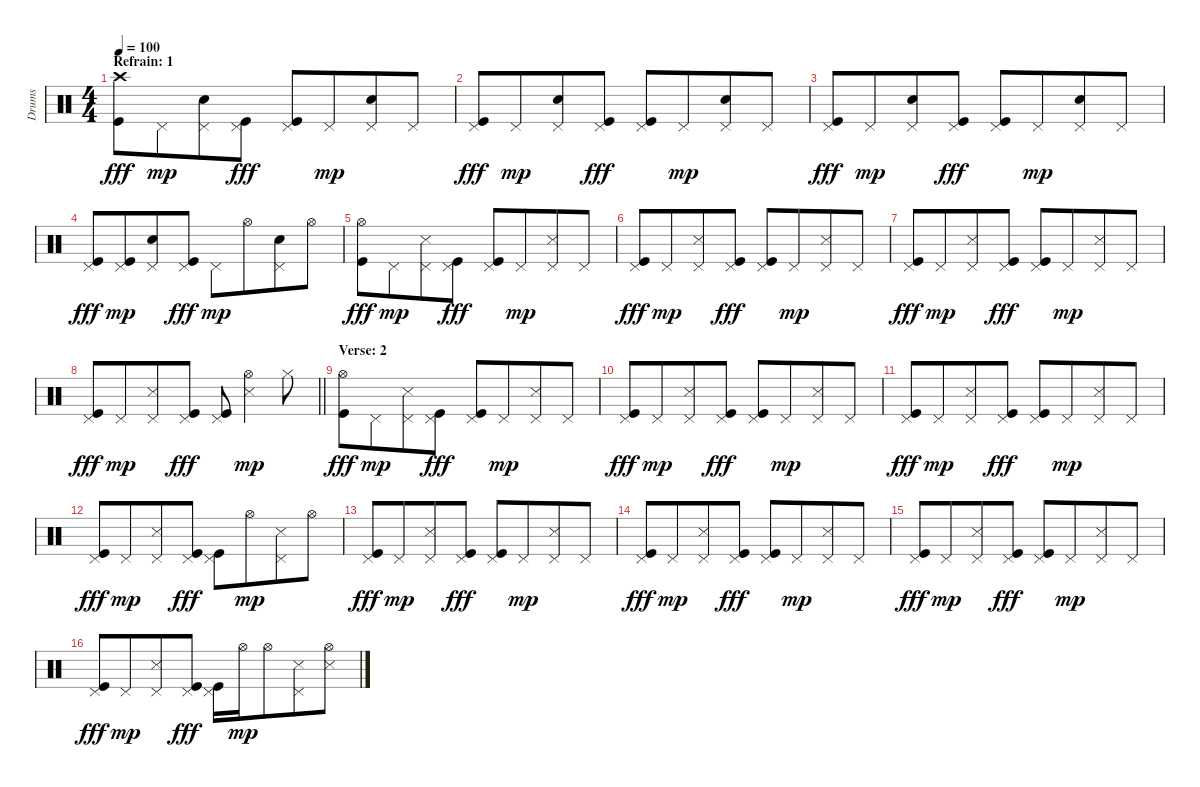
\track ("Drums" "Drums") {instrument percussion}
\staff {score}
\articulation defaults
\ts (4 4)
\section ("" "Refrain: 1")
\tempo 100
\clef neutral
\ks c
("Crash high (hit)" "Kick (hit)").8{dy fff} "Pedal Hi-Hat (hit)".8{dy mp beam merge} ("Pedal Hi-Hat (hit)" "Snare (hit) 2").8 ("Pedal Hi-Hat (hit)" "Kick (hit)").8{dy fff} ("Pedal Hi-Hat (hit)" "Kick (hit)").8 "Pedal Hi-Hat (hit)".8{dy mp beam merge} ("Pedal Hi-Hat (hit)" "Snare (hit) 2").8 "Pedal Hi-Hat (hit)".8 |
("Pedal Hi-Hat (hit)" "Kick (hit)").8{dy fff} "Pedal Hi-Hat (hit)".8{dy mp beam merge} ("Pedal Hi-Hat (hit)" "Snare (hit) 2").8 ("Pedal Hi-Hat (hit)" "Kick (hit)").8{dy fff} ("Pedal Hi-Hat (hit)" "Kick (hit)").8 "Pedal Hi-Hat (hit)".8{dy mp beam merge} ("Pedal Hi-Hat (hit)" "Snare (hit) 2").8 "Pedal Hi-Hat (hit)".8 |
("Pedal Hi-Hat (hit)" "Kick (hit)").8{dy fff} "Pedal Hi-Hat (hit)".8{dy mp beam merge} ("Pedal Hi-Hat (hit)" "Snare (hit) 2").8 ("Pedal Hi-Hat (hit)" "Kick (hit)").8{dy fff} ("Pedal Hi-Hat (hit)" "Kick (hit)").8 "Pedal Hi-Hat (hit)".8{dy mp beam merge} ("Pedal Hi-Hat (hit)" "Snare (hit) 2").8 "Pedal Hi-Hat (hit)".8 |
("Pedal Hi-Hat (hit)" "Kick (hit)").8{dy fff} ("Pedal Hi-Hat (hit)" "Kick (hit)").8{dy mp beam merge} ("Pedal Hi-Hat (hit)" "Snare (hit) 2").8 ("Pedal Hi-Hat (hit)" "Kick (hit)").8{dy fff} "Pedal Hi-Hat (hit)".8{dy mp} "Hi-Hat (open)".8{beam merge} ("Pedal Hi-Hat (hit)" "Snare (hit) 2").8 "Hi-Hat (open)".8 |
("Hi-Hat (open)" "Kick (hit)").8{dy fff} "Pedal Hi-Hat (hit)".8{dy mp beam merge} ("Pedal Hi-Hat (hit)" "Snare (side stick) 3").8 ("Pedal Hi-Hat (hit)" "Kick (hit)").8{dy fff} ("Pedal Hi-Hat (hit)" "Kick (hit)").8 "Pedal Hi-Hat (hit)".8{dy mp beam merge} ("Pedal Hi-Hat (hit)" "Snare (side stick) 3").8 "Pedal Hi-Hat (hit)".8 |
("Pedal Hi-Hat (hit)" "Kick (hit)").8{dy fff} "Pedal Hi-Hat (hit)".8{dy mp beam merge} ("Pedal Hi-Hat (hit)" "Snare (side stick) 3").8 ("Pedal Hi-Hat (hit)" "Kick (hit)").8{dy fff} ("Pedal Hi-Hat (hit)" "Kick (hit)").8 "Pedal Hi-Hat (hit)".8{dy mp beam merge} ("Pedal Hi-Hat (hit)" "Snare (side stick) 3").8 "Pedal Hi-Hat (hit)".8 |
("Pedal Hi-Hat (hit)" "Kick (hit)").8{dy fff} "Pedal Hi-Hat (hit)".8{dy mp beam merge} ("Pedal Hi-Hat (hit)" "Snare (side stick) 3").8 ("Pedal Hi-Hat (hit)" "Kick (hit)").8{dy fff} ("Pedal Hi-Hat (hit)" "Kick (hit)").8 "Pedal Hi-Hat (hit)".8{dy mp beam merge} ("Pedal Hi-Hat (hit)" "Snare (side stick) 3").8 "Pedal Hi-Hat (hit)".8 |
\barLineRight lightlight
("Pedal Hi-Hat (hit)" "Kick (hit)").8{dy fff} "Pedal Hi-Hat (hit)".8{dy mp beam merge} ("Pedal Hi-Hat (hit)" "Snare (side stick) 3").8 ("Pedal Hi-Hat (hit)" "Kick (hit)").8{dy fff} ("Pedal Hi-Hat (hit)" "Kick (hit)").8 ("Hi-Hat (open)" "Snare (side stick) 3").4{dy mp} "Hi-Hat (closed)".8 |
\section ("" "Verse: 2")
("Hi-Hat (open)" "Kick (hit)").8{dy fff} "Pedal Hi-Hat (hit)".8{dy mp beam merge} ("Pedal Hi-Hat (hit)" "Snare (side stick) 3").8 ("Pedal Hi-Hat (hit)" "Kick (hit)").8{dy fff} ("Pedal Hi-Hat (hit)" "Kick (hit)").8 "Pedal Hi-Hat (hit)".8{dy mp beam merge} ("Pedal Hi-Hat (hit)" "Snare (side stick) 3").8 "Pedal Hi-Hat (hit)".8 |
("Pedal Hi-Hat (hit)" "Kick (hit)").8{dy fff} "Pedal Hi-Hat (hit)".8{dy mp beam merge} ("Pedal Hi-Hat (hit)" "Snare (side stick) 3").8 ("Pedal Hi-Hat (hit)" "Kick (hit)").8{dy fff} ("Pedal Hi-Hat (hit)" "Kick (hit)").8 "Pedal Hi-Hat (hit)".8{dy mp beam merge} ("Pedal Hi-Hat (hit)" "Snare (side stick) 3").8 "Pedal Hi-Hat (hit)".8 |
("Pedal Hi-Hat (hit)" "Kick (hit)").8{dy fff} "Pedal Hi-Hat (hit)".8{dy mp beam merge} ("Pedal Hi-Hat (hit)" "Snare (side stick) 3").8 ("Pedal Hi-Hat (hit)" "Kick (hit)").8{dy fff} ("Pedal Hi-Hat (hit)" "Kick (hit)").8 "Pedal Hi-Hat (hit)".8{dy mp beam merge} ("Pedal Hi-Hat (hit)" "Snare (side stick) 3").8 "Pedal Hi-Hat (hit)".8 |
("Pedal Hi-Hat (hit)" "Kick (hit)").8{dy fff} "Pedal Hi-Hat (hit)".8{dy mp beam merge} ("Pedal Hi-Hat (hit)" "Snare (side stick) 3").8 ("Pedal Hi-Hat (hit)" "Kick (hit)").8{dy fff} ("Pedal Hi-Hat (hit)" "Kick (hit)").8 "Hi-Hat (open)".8{dy mp beam merge} ("Pedal Hi-Hat (hit)" "Snare (side stick) 3").8 "Hi-Hat (open)".8 |
("Pedal Hi-Hat (hit)" "Kick (hit)").8{dy fff} "Pedal Hi-Hat (hit)".8{dy mp beam merge} ("Pedal Hi-Hat (hit)" "Snare (side stick) 3").8 ("Pedal Hi-Hat (hit)" "Kick (hit)").8{dy fff} ("Pedal Hi-Hat (hit)" "Kick (hit)").8 "Pedal Hi-Hat (hit)".8{dy mp beam merge} ("Pedal Hi-Hat (hit)" "Snare (side stick) 3").8 "Pedal Hi-Hat (hit)".8 |
("Pedal Hi-Hat (hit)" "Kick (hit)").8{dy fff} "Pedal Hi-Hat (hit)".8{dy mp beam merge} ("Pedal Hi-Hat (hit)" "Snare (side stick) 3").8 ("Pedal Hi-Hat (hit)" "Kick (hit)").8{dy fff} ("Pedal Hi-Hat (hit)" "Kick (hit)").8 "Pedal Hi-Hat (hit)".8{dy mp beam merge} ("Pedal Hi-Hat (hit)" "Snare (side stick) 3").8 "Pedal Hi-Hat (hit)".8 |
("Pedal Hi-Hat (hit)" "Kick (hit)").8{dy fff} "Pedal Hi-Hat (hit)".8{dy mp beam merge} ("Pedal Hi-Hat (hit)" "Snare (side stick) 3").8 ("Pedal Hi-Hat (hit)" "Kick (hit)").8{dy fff} ("Pedal Hi-Hat (hit)" "Kick (hit)").8 "Pedal Hi-Hat (hit)".8{dy mp beam merge} ("Pedal Hi-Hat (hit)" "Snare (side stick) 3").8 "Pedal Hi-Hat (hit)".8 |
("Pedal Hi-Hat (hit)" "Kick (hit)").8{dy fff} "Pedal Hi-Hat (hit)".8{dy mp beam merge} ("Pedal Hi-Hat (hit)" "Snare (side stick) 3").8 ("Pedal Hi-Hat (hit)" "Kick (hit)").8{dy fff} ("Pedal Hi-Hat (hit)" "Kick (hit)").16 "Hi-Hat (open)".16{dy mp} "Hi-Hat (open)".8{beam merge} ("Pedal Hi-Hat (hit)" "Snare (side stick) 3").8 ("Hi-Hat (open)" "Metronome (hit)").8
